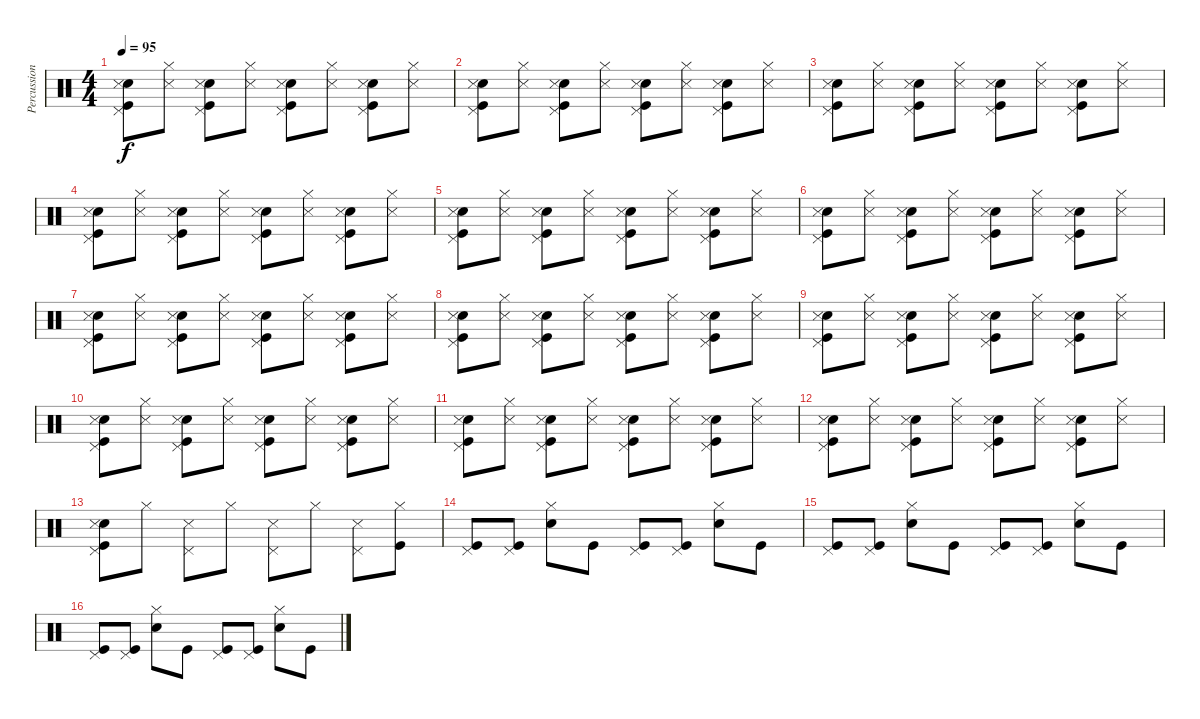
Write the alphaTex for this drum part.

\track ("Percussion" "Percussion") {instrument percussion}
\staff {score}
\articulation defaults
\ts (4 4)
\tempo 95
\clef neutral
\ks c
("Pedal Hi-Hat (hit)" "Electric Snare (hit)" "Snare (side stick) 3" "Kick (hit)").8{dy f} ("Hi-Hat (closed)" "Snare (side stick) 3").8 ("Pedal Hi-Hat (hit)" "Electric Snare (hit)" "Snare (side stick) 3" "Kick (hit)").8 ("Hi-Hat (closed)" "Snare (side stick) 3").8 ("Pedal Hi-Hat (hit)" "Electric Snare (hit)" "Snare (side stick) 3" "Kick (hit)").8 ("Hi-Hat (closed)" "Snare (side stick) 3").8 ("Pedal Hi-Hat (hit)" "Electric Snare (hit)" "Snare (side stick) 3" "Kick (hit)").8 ("Hi-Hat (closed)" "Snare (side stick) 3").8 |
("Pedal Hi-Hat (hit)" "Electric Snare (hit)" "Snare (side stick) 3" "Kick (hit)").8 ("Hi-Hat (closed)" "Snare (side stick) 3").8 ("Pedal Hi-Hat (hit)" "Electric Snare (hit)" "Snare (side stick) 3" "Kick (hit)").8 ("Hi-Hat (closed)" "Snare (side stick) 3").8 ("Pedal Hi-Hat (hit)" "Electric Snare (hit)" "Snare (side stick) 3" "Kick (hit)").8 ("Hi-Hat (closed)" "Snare (side stick) 3").8 ("Pedal Hi-Hat (hit)" "Electric Snare (hit)" "Snare (side stick) 3" "Kick (hit)").8 ("Hi-Hat (closed)" "Snare (side stick) 3").8 |
("Pedal Hi-Hat (hit)" "Electric Snare (hit)" "Snare (side stick) 3" "Kick (hit)").8 ("Hi-Hat (closed)" "Snare (side stick) 3").8 ("Pedal Hi-Hat (hit)" "Electric Snare (hit)" "Snare (side stick) 3" "Kick (hit)").8 ("Hi-Hat (closed)" "Snare (side stick) 3").8 ("Pedal Hi-Hat (hit)" "Electric Snare (hit)" "Snare (side stick) 3" "Kick (hit)").8 ("Hi-Hat (closed)" "Snare (side stick) 3").8 ("Pedal Hi-Hat (hit)" "Electric Snare (hit)" "Snare (side stick) 3" "Kick (hit)").8 ("Hi-Hat (closed)" "Snare (side stick) 3").8 |
("Pedal Hi-Hat (hit)" "Electric Snare (hit)" "Snare (side stick) 3" "Kick (hit)").8 ("Hi-Hat (closed)" "Snare (side stick) 3").8 ("Pedal Hi-Hat (hit)" "Electric Snare (hit)" "Snare (side stick) 3" "Kick (hit)").8 ("Hi-Hat (closed)" "Snare (side stick) 3").8 ("Pedal Hi-Hat (hit)" "Electric Snare (hit)" "Snare (side stick) 3" "Kick (hit)").8 ("Hi-Hat (closed)" "Snare (side stick) 3").8 ("Pedal Hi-Hat (hit)" "Electric Snare (hit)" "Snare (side stick) 3" "Kick (hit)").8 ("Hi-Hat (closed)" "Snare (side stick) 3").8 |
("Pedal Hi-Hat (hit)" "Electric Snare (hit)" "Snare (side stick) 3" "Kick (hit)").8 ("Hi-Hat (closed)" "Snare (side stick) 3").8 ("Pedal Hi-Hat (hit)" "Electric Snare (hit)" "Snare (side stick) 3" "Kick (hit)").8 ("Hi-Hat (closed)" "Snare (side stick) 3").8 ("Pedal Hi-Hat (hit)" "Electric Snare (hit)" "Snare (side stick) 3" "Kick (hit)").8 ("Hi-Hat (closed)" "Snare (side stick) 3").8 ("Pedal Hi-Hat (hit)" "Electric Snare (hit)" "Snare (side stick) 3" "Kick (hit)").8 ("Hi-Hat (closed)" "Snare (side stick) 3").8 |
("Pedal Hi-Hat (hit)" "Electric Snare (hit)" "Snare (side stick) 3" "Kick (hit)").8 ("Hi-Hat (closed)" "Snare (side stick) 3").8 ("Pedal Hi-Hat (hit)" "Electric Snare (hit)" "Snare (side stick) 3" "Kick (hit)").8 ("Hi-Hat (closed)" "Snare (side stick) 3").8 ("Pedal Hi-Hat (hit)" "Electric Snare (hit)" "Snare (side stick) 3" "Kick (hit)").8 ("Hi-Hat (closed)" "Snare (side stick) 3").8 ("Pedal Hi-Hat (hit)" "Electric Snare (hit)" "Snare (side stick) 3" "Kick (hit)").8 ("Hi-Hat (closed)" "Snare (side stick) 3").8 |
("Pedal Hi-Hat (hit)" "Electric Snare (hit)" "Snare (side stick) 3" "Kick (hit)").8 ("Hi-Hat (closed)" "Snare (side stick) 3").8 ("Pedal Hi-Hat (hit)" "Electric Snare (hit)" "Snare (side stick) 3" "Kick (hit)").8 ("Hi-Hat (closed)" "Snare (side stick) 3").8 ("Pedal Hi-Hat (hit)" "Electric Snare (hit)" "Snare (side stick) 3" "Kick (hit)").8 ("Hi-Hat (closed)" "Snare (side stick) 3").8 ("Pedal Hi-Hat (hit)" "Electric Snare (hit)" "Snare (side stick) 3" "Kick (hit)").8 ("Hi-Hat (closed)" "Snare (side stick) 3").8 |
("Pedal Hi-Hat (hit)" "Electric Snare (hit)" "Snare (side stick) 3" "Kick (hit)").8 ("Hi-Hat (closed)" "Snare (side stick) 3").8 ("Pedal Hi-Hat (hit)" "Electric Snare (hit)" "Snare (side stick) 3" "Kick (hit)").8 ("Hi-Hat (closed)" "Snare (side stick) 3").8 ("Pedal Hi-Hat (hit)" "Electric Snare (hit)" "Snare (side stick) 3" "Kick (hit)").8 ("Hi-Hat (closed)" "Snare (side stick) 3").8 ("Pedal Hi-Hat (hit)" "Electric Snare (hit)" "Snare (side stick) 3" "Kick (hit)").8 ("Hi-Hat (closed)" "Snare (side stick) 3").8 |
("Pedal Hi-Hat (hit)" "Electric Snare (hit)" "Snare (side stick) 3" "Kick (hit)").8 ("Hi-Hat (closed)" "Snare (side stick) 3").8 ("Pedal Hi-Hat (hit)" "Electric Snare (hit)" "Snare (side stick) 3" "Kick (hit)").8 ("Hi-Hat (closed)" "Snare (side stick) 3").8 ("Pedal Hi-Hat (hit)" "Electric Snare (hit)" "Snare (side stick) 3" "Kick (hit)").8 ("Hi-Hat (closed)" "Snare (side stick) 3").8 ("Pedal Hi-Hat (hit)" "Electric Snare (hit)" "Snare (side stick) 3" "Kick (hit)").8 ("Hi-Hat (closed)" "Snare (side stick) 3").8 |
("Pedal Hi-Hat (hit)" "Electric Snare (hit)" "Snare (side stick) 3" "Kick (hit)").8 ("Hi-Hat (closed)" "Snare (side stick) 3").8 ("Pedal Hi-Hat (hit)" "Electric Snare (hit)" "Snare (side stick) 3" "Kick (hit)").8 ("Hi-Hat (closed)" "Snare (side stick) 3").8 ("Pedal Hi-Hat (hit)" "Electric Snare (hit)" "Snare (side stick) 3" "Kick (hit)").8 ("Hi-Hat (closed)" "Snare (side stick) 3").8 ("Pedal Hi-Hat (hit)" "Electric Snare (hit)" "Snare (side stick) 3" "Kick (hit)").8 ("Hi-Hat (closed)" "Snare (side stick) 3").8 |
("Pedal Hi-Hat (hit)" "Electric Snare (hit)" "Snare (side stick) 3" "Kick (hit)").8 ("Hi-Hat (closed)" "Snare (side stick) 3").8 ("Pedal Hi-Hat (hit)" "Electric Snare (hit)" "Snare (side stick) 3" "Kick (hit)").8 ("Hi-Hat (closed)" "Snare (side stick) 3").8 ("Pedal Hi-Hat (hit)" "Electric Snare (hit)" "Snare (side stick) 3" "Kick (hit)").8 ("Hi-Hat (closed)" "Snare (side stick) 3").8 ("Pedal Hi-Hat (hit)" "Electric Snare (hit)" "Snare (side stick) 3" "Kick (hit)").8 ("Hi-Hat (closed)" "Snare (side stick) 3").8 |
("Pedal Hi-Hat (hit)" "Electric Snare (hit)" "Snare (side stick) 3" "Kick (hit)").8 ("Hi-Hat (closed)" "Snare (side stick) 3").8 ("Pedal Hi-Hat (hit)" "Electric Snare (hit)" "Snare (side stick) 3" "Kick (hit)").8 ("Hi-Hat (closed)" "Snare (side stick) 3").8 ("Pedal Hi-Hat (hit)" "Electric Snare (hit)" "Snare (side stick) 3" "Kick (hit)").8 ("Hi-Hat (closed)" "Snare (side stick) 3").8 ("Pedal Hi-Hat (hit)" "Electric Snare (hit)" "Snare (side stick) 3" "Kick (hit)").8 ("Hi-Hat (closed)" "Snare (side stick) 3").8 |
("Pedal Hi-Hat (hit)" "Electric Snare (hit)" "Snare (side stick) 3" "Kick (hit)").8 "Hi-Hat (closed)".8 ("Pedal Hi-Hat (hit)" "Snare (side stick) 3").8 "Hi-Hat (closed)".8 ("Pedal Hi-Hat (hit)" "Snare (side stick) 3").8 "Hi-Hat (closed)".8 ("Pedal Hi-Hat (hit)" "Snare (side stick) 3").8 ("Hi-Hat (closed)" "Kick (hit)").8 |
("Pedal Hi-Hat (hit)" "Kick (hit)").8 ("Pedal Hi-Hat (hit)" "Kick (hit)").8 ("Hi-Hat (closed)" "Snare (hit) 2").8 "Kick (hit)".8 ("Pedal Hi-Hat (hit)" "Kick (hit)").8 ("Pedal Hi-Hat (hit)" "Kick (hit)").8 ("Hi-Hat (closed)" "Snare (hit) 2").8 "Kick (hit)".8 |
("Pedal Hi-Hat (hit)" "Kick (hit)").8 ("Pedal Hi-Hat (hit)" "Kick (hit)").8 ("Hi-Hat (closed)" "Snare (hit) 2").8 "Kick (hit)".8 ("Pedal Hi-Hat (hit)" "Kick (hit)").8 ("Pedal Hi-Hat (hit)" "Kick (hit)").8 ("Hi-Hat (closed)" "Snare (hit) 2").8 "Kick (hit)".8 |
("Pedal Hi-Hat (hit)" "Kick (hit)").8 ("Pedal Hi-Hat (hit)" "Kick (hit)").8 ("Hi-Hat (closed)" "Snare (hit) 2").8 "Kick (hit)".8 ("Pedal Hi-Hat (hit)" "Kick (hit)").8 ("Pedal Hi-Hat (hit)" "Kick (hit)").8 ("Hi-Hat (closed)" "Snare (hit) 2").8 "Kick (hit)".8
